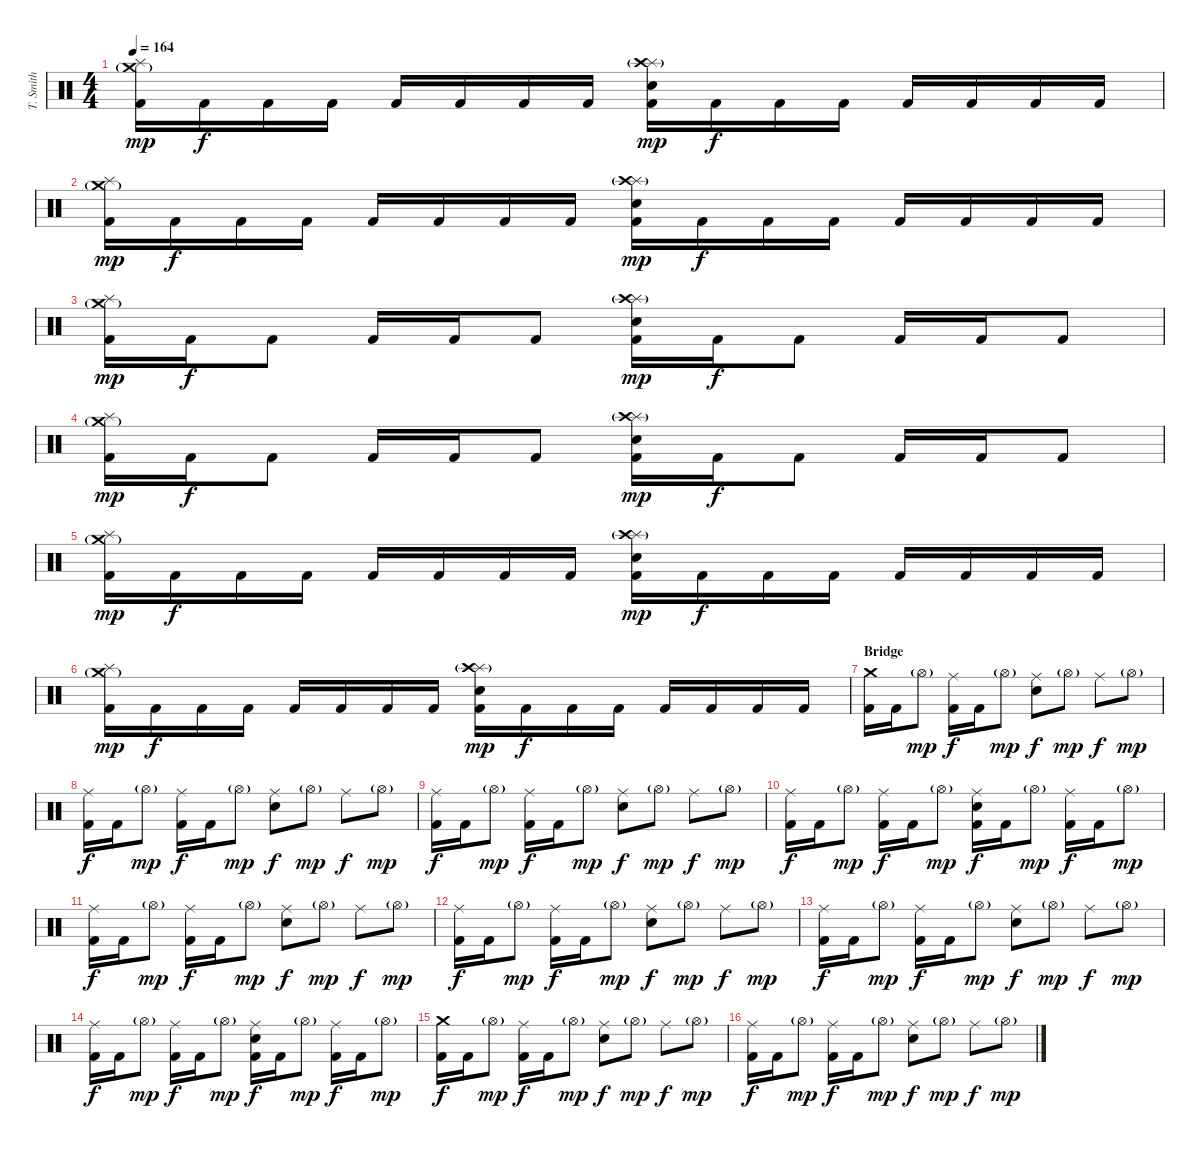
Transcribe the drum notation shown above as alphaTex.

\track ("T. Smith" "T. Smith") {instrument percussion}
\staff {score}
\articulation defaults
\ts (4 4)
\tempo 164
\clef neutral
\ks c
("Splash (hit)" "Crash medium (hit)"{g} "Kick (hit) 2").16{dy mp} "Kick (hit) 2".16{dy f} "Kick (hit) 2".16 "Kick (hit) 2".16 "Kick (hit) 2".16 "Kick (hit) 2".16 "Kick (hit) 2".16 "Kick (hit) 2".16 ("Splash (hit)" "Crash high (hit)"{g} "Electric Snare (hit)" "Kick (hit) 2").16{dy mp} "Kick (hit) 2".16{dy f} "Kick (hit) 2".16 "Kick (hit) 2".16 "Kick (hit) 2".16 "Kick (hit) 2".16 "Kick (hit) 2".16 "Kick (hit) 2".16 |
("Splash (hit)" "Crash medium (hit)"{g} "Kick (hit) 2").16{dy mp} "Kick (hit) 2".16{dy f} "Kick (hit) 2".16 "Kick (hit) 2".16 "Kick (hit) 2".16 "Kick (hit) 2".16 "Kick (hit) 2".16 "Kick (hit) 2".16 ("Splash (hit)" "Crash high (hit)"{g} "Electric Snare (hit)" "Kick (hit) 2").16{dy mp} "Kick (hit) 2".16{dy f} "Kick (hit) 2".16 "Kick (hit) 2".16 "Kick (hit) 2".16 "Kick (hit) 2".16 "Kick (hit) 2".16 "Kick (hit) 2".16 |
("Splash (hit)" "Crash medium (hit)"{g} "Kick (hit) 2").16{dy mp} "Kick (hit) 2".16{dy f} "Kick (hit) 2".8 "Kick (hit) 2".16 "Kick (hit) 2".16 "Kick (hit) 2".8 ("Splash (hit)" "Crash high (hit)"{g} "Electric Snare (hit)" "Kick (hit) 2").16{dy mp} "Kick (hit) 2".16{dy f} "Kick (hit) 2".8 "Kick (hit) 2".16 "Kick (hit) 2".16 "Kick (hit) 2".8 |
("Splash (hit)" "Crash medium (hit)"{g} "Kick (hit) 2").16{dy mp} "Kick (hit) 2".16{dy f} "Kick (hit) 2".8 "Kick (hit) 2".16 "Kick (hit) 2".16 "Kick (hit) 2".8 ("Splash (hit)" "Crash high (hit)"{g} "Electric Snare (hit)" "Kick (hit) 2").16{dy mp} "Kick (hit) 2".16{dy f} "Kick (hit) 2".8 "Kick (hit) 2".16 "Kick (hit) 2".16 "Kick (hit) 2".8 |
("Splash (hit)" "Crash medium (hit)"{g} "Kick (hit) 2").16{dy mp} "Kick (hit) 2".16{dy f} "Kick (hit) 2".16 "Kick (hit) 2".16 "Kick (hit) 2".16 "Kick (hit) 2".16 "Kick (hit) 2".16 "Kick (hit) 2".16 ("Splash (hit)" "Crash high (hit)"{g} "Electric Snare (hit)" "Kick (hit) 2").16{dy mp} "Kick (hit) 2".16{dy f} "Kick (hit) 2".16 "Kick (hit) 2".16 "Kick (hit) 2".16 "Kick (hit) 2".16 "Kick (hit) 2".16 "Kick (hit) 2".16 |
("Splash (hit)" "Crash medium (hit)"{g} "Kick (hit) 2").16{dy mp} "Kick (hit) 2".16{dy f} "Kick (hit) 2".16 "Kick (hit) 2".16 "Kick (hit) 2".16 "Kick (hit) 2".16 "Kick (hit) 2".16 "Kick (hit) 2".16 ("Splash (hit)" "Crash high (hit)"{g} "Electric Snare (hit)" "Kick (hit) 2").16{dy mp} "Kick (hit) 2".16{dy f} "Kick (hit) 2".16 "Kick (hit) 2".16 "Kick (hit) 2".16 "Kick (hit) 2".16 "Kick (hit) 2".16 "Kick (hit) 2".16 |
\section ("" "Bridge")
("Crash medium (hit)" "Kick (hit) 2").16 "Kick (hit) 2".16 "Hi-Hat (open)"{g}.8{dy mp} ("Ride (middle)" "Kick (hit) 2").16{dy f} "Kick (hit) 2".16 "Hi-Hat (open)"{g}.8{dy mp} ("Ride (middle)" "Electric Snare (hit)").8{dy f} "Hi-Hat (open)"{g}.8{dy mp} "Ride (middle)".8{dy f} "Hi-Hat (open)"{g}.8{dy mp} |
("Ride (middle)" "Kick (hit) 2").16{dy f} "Kick (hit) 2".16 "Hi-Hat (open)"{g}.8{dy mp} ("Ride (middle)" "Kick (hit) 2").16{dy f} "Kick (hit) 2".16 "Hi-Hat (open)"{g}.8{dy mp} ("Ride (middle)" "Electric Snare (hit)").8{dy f} "Hi-Hat (open)"{g}.8{dy mp} "Ride (middle)".8{dy f} "Hi-Hat (open)"{g}.8{dy mp} |
("Ride (middle)" "Kick (hit) 2").16{dy f} "Kick (hit) 2".16 "Hi-Hat (open)"{g}.8{dy mp} ("Ride (middle)" "Kick (hit) 2").16{dy f} "Kick (hit) 2".16 "Hi-Hat (open)"{g}.8{dy mp} ("Ride (middle)" "Electric Snare (hit)").8{dy f} "Hi-Hat (open)"{g}.8{dy mp} "Ride (middle)".8{dy f} "Hi-Hat (open)"{g}.8{dy mp} |
("Ride (middle)" "Kick (hit) 2").16{dy f} "Kick (hit) 2".16 "Hi-Hat (open)"{g}.8{dy mp} ("Ride (middle)" "Kick (hit) 2").16{dy f} "Kick (hit) 2".16 "Hi-Hat (open)"{g}.8{dy mp} ("Ride (middle)" "Electric Snare (hit)" "Kick (hit) 2").16{dy f} "Kick (hit) 2".16 "Hi-Hat (open)"{g}.8{dy mp} ("Ride (middle)" "Kick (hit) 2").16{dy f} "Kick (hit) 2".16 "Hi-Hat (open)"{g}.8{dy mp} |
("Ride (middle)" "Kick (hit) 2").16{dy f} "Kick (hit) 2".16 "Hi-Hat (open)"{g}.8{dy mp} ("Ride (middle)" "Kick (hit) 2").16{dy f} "Kick (hit) 2".16 "Hi-Hat (open)"{g}.8{dy mp} ("Ride (middle)" "Electric Snare (hit)").8{dy f} "Hi-Hat (open)"{g}.8{dy mp} "Ride (middle)".8{dy f} "Hi-Hat (open)"{g}.8{dy mp} |
("Ride (middle)" "Kick (hit) 2").16{dy f} "Kick (hit) 2".16 "Hi-Hat (open)"{g}.8{dy mp} ("Ride (middle)" "Kick (hit) 2").16{dy f} "Kick (hit) 2".16 "Hi-Hat (open)"{g}.8{dy mp} ("Ride (middle)" "Electric Snare (hit)").8{dy f} "Hi-Hat (open)"{g}.8{dy mp} "Ride (middle)".8{dy f} "Hi-Hat (open)"{g}.8{dy mp} |
("Ride (middle)" "Kick (hit) 2").16{dy f} "Kick (hit) 2".16 "Hi-Hat (open)"{g}.8{dy mp} ("Ride (middle)" "Kick (hit) 2").16{dy f} "Kick (hit) 2".16 "Hi-Hat (open)"{g}.8{dy mp} ("Ride (middle)" "Electric Snare (hit)").8{dy f} "Hi-Hat (open)"{g}.8{dy mp} "Ride (middle)".8{dy f} "Hi-Hat (open)"{g}.8{dy mp} |
("Ride (middle)" "Kick (hit) 2").16{dy f} "Kick (hit) 2".16 "Hi-Hat (open)"{g}.8{dy mp} ("Ride (middle)" "Kick (hit) 2").16{dy f} "Kick (hit) 2".16 "Hi-Hat (open)"{g}.8{dy mp} ("Ride (middle)" "Electric Snare (hit)" "Kick (hit) 2").16{dy f} "Kick (hit) 2".16 "Hi-Hat (open)"{g}.8{dy mp} ("Ride (middle)" "Kick (hit) 2").16{dy f} "Kick (hit) 2".16 "Hi-Hat (open)"{g}.8{dy mp} |
("Crash medium (hit)" "Kick (hit) 2").16{dy f} "Kick (hit) 2".16 "Hi-Hat (open)"{g}.8{dy mp} ("Ride (middle)" "Kick (hit) 2").16{dy f} "Kick (hit) 2".16 "Hi-Hat (open)"{g}.8{dy mp} ("Ride (middle)" "Electric Snare (hit)").8{dy f} "Hi-Hat (open)"{g}.8{dy mp} "Ride (middle)".8{dy f} "Hi-Hat (open)"{g}.8{dy mp} |
("Ride (middle)" "Kick (hit) 2").16{dy f} "Kick (hit) 2".16 "Hi-Hat (open)"{g}.8{dy mp} ("Ride (middle)" "Kick (hit) 2").16{dy f} "Kick (hit) 2".16 "Hi-Hat (open)"{g}.8{dy mp} ("Ride (middle)" "Electric Snare (hit)").8{dy f} "Hi-Hat (open)"{g}.8{dy mp} "Ride (middle)".8{dy f} "Hi-Hat (open)"{g}.8{dy mp}
